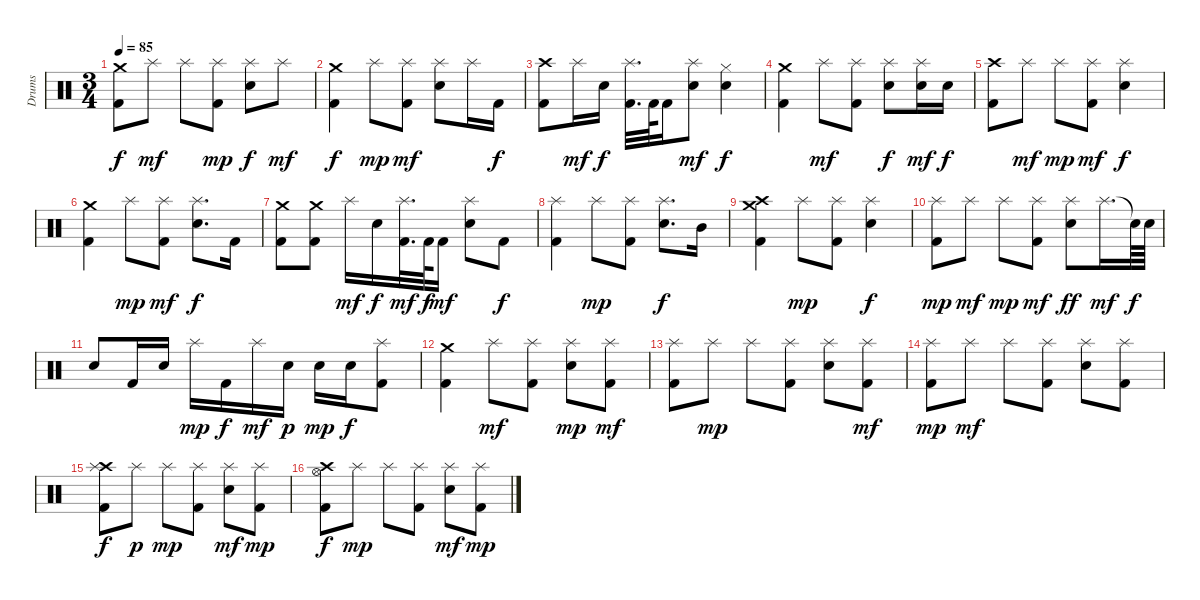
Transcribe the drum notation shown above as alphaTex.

\track ("Drums" "Drums") {instrument percussion}
\staff {score}
\articulation defaults
\ts (3 4)
\tempo 85
\clef neutral
\ks c
("Kick (hit) 2" "Crash medium (hit)").8{dy f} "Splash (hit)".8{dy mf} "Splash (hit)".8 ("Kick (hit) 2" "Splash (hit)").8{dy mp} ("Snare (hit) 2" "Splash (hit)").8{dy f} "Splash (hit)".8{dy mf} |
("Kick (hit) 2" "Crash medium (hit)").4{dy f} "Splash (hit)".8{dy mp} ("Kick (hit) 2" "Splash (hit)").8{dy mf} ("Snare (hit) 2" "Splash (hit)").8 "Splash (hit)".16 "Kick (hit) 2".16{dy f} |
("Kick (hit) 2" "Crash high (hit)").8 "Splash (hit)".16{dy mf} "Snare (hit) 2".16{dy f} ("Kick (hit) 2" "Splash (hit)").32{d} "Kick (hit) 2".64 "Kick (hit) 2".16 ("Snare (hit) 2" "Splash (hit)").8{dy mf} ("Snare (hit) 2" "Hi-Hat (closed)").4{dy f} |
("Kick (hit) 2" "Crash medium (hit)").4 "Splash (hit)".8{dy mf} ("Kick (hit) 2" "Splash (hit)").8 ("Snare (hit) 2" "Splash (hit)").8{dy f} ("Snare (hit) 2" "Splash (hit)").16{dy mf} "Snare (hit) 2".16{dy f} |
("Kick (hit) 2" "Crash high (hit)").8 "Splash (hit)".8{dy mf} "Splash (hit)".8{dy mp} ("Kick (hit) 2" "Splash (hit)").8{dy mf} ("Snare (hit) 2" "Splash (hit)").4{dy f} |
("Kick (hit) 2" "Crash medium (hit)").4 "Splash (hit)".8{dy mp} ("Kick (hit) 2" "Splash (hit)").8{dy mf} ("Snare (hit) 2" "Splash (hit)").8{d dy f} "Kick (hit) 2".16 |
("Kick (hit) 2" "Crash medium (hit)").8 ("Kick (hit) 2" "Crash medium (hit)").8 "Splash (hit)".16{dy mf} "Snare (hit) 2".16{dy f} ("Kick (hit) 2" "Splash (hit)").32{d dy mf} "Kick (hit) 2".64{dy f} "Kick (hit) 2".16{dy mf} ("Snare (hit) 2" "Splash (hit)").8 "Kick (hit) 2".8{dy f} |
("Kick (hit) 2" "Splash (hit)").4 "Splash (hit)".8{dy mp} ("Kick (hit) 2" "Splash (hit)").8 ("Snare (hit) 2" "Splash (hit)").8{d dy f} "Mid Tom (hit)".16 |
("Kick (hit) 2" "Crash high (hit)" "Crash medium (hit)").4 "Splash (hit)".8{dy mp} ("Kick (hit) 2" "Splash (hit)").8 ("Snare (hit) 2" "Splash (hit)").4{dy f} |
("Kick (hit) 2" "Splash (hit)").8{dy mp} "Splash (hit)".8{dy mf} "Splash (hit)".8{dy mp} ("Kick (hit) 2" "Splash (hit)").8{dy mf} ("Snare (hit) 2" "Splash (hit)").8{dy ff} "Splash (hit)".16{d dy mf} "Snare (hit)"{t}.64{dy f} "Snare (hit) 2".64 |
"Snare (hit) 2".8 "Kick (hit) 2".16 "Snare (hit) 2".16 "Splash (hit)".16{dy mp} "Kick (hit) 2".16{dy f} "Splash (hit)".16{dy mf} "Snare (hit) 2".16{dy p} "Snare (hit) 2".16{dy mp} "Snare (hit) 2".16{dy f} ("Kick (hit) 2" "Splash (hit)").8 |
("Kick (hit) 2" "Crash medium (hit)").4 "Splash (hit)".8{dy mf} ("Kick (hit) 2" "Splash (hit)").8 ("Snare (hit) 2" "Splash (hit)").8{dy mp} ("Kick (hit) 2" "Splash (hit)").8{dy mf} |
("Kick (hit) 2" "Splash (hit)").8 "Splash (hit)".8{dy mp} "Splash (hit)".8 ("Kick (hit) 2" "Splash (hit)").8 ("Snare (hit) 2" "Splash (hit)").8 ("Kick (hit) 2" "Splash (hit)").8{dy mf} |
("Kick (hit) 2" "Splash (hit)").8{dy mp} "Splash (hit)".8{dy mf} "Splash (hit)".8 ("Kick (hit) 2" "Splash (hit)").8 ("Snare (hit) 2" "Splash (hit)").8 ("Kick (hit) 2" "Splash (hit)").8 |
("Kick (hit) 2" "Crash high (hit)" "Splash (hit)").8{dy f} "Splash (hit)".8{dy p} "Splash (hit)".8{dy mp} ("Kick (hit) 2" "Splash (hit)").8 ("Snare (hit) 2" "Splash (hit)").8{dy mf} ("Kick (hit) 2" "Splash (hit)").8{dy mp} |
("Kick (hit) 2" "Hi-Hat (open)" "Crash high (hit)").8{dy f} "Splash (hit)".8{dy mp} "Splash (hit)".8 ("Kick (hit) 2" "Splash (hit)").8 ("Snare (hit) 2" "Splash (hit)").8{dy mf} ("Kick (hit) 2" "Splash (hit)").8{dy mp}
